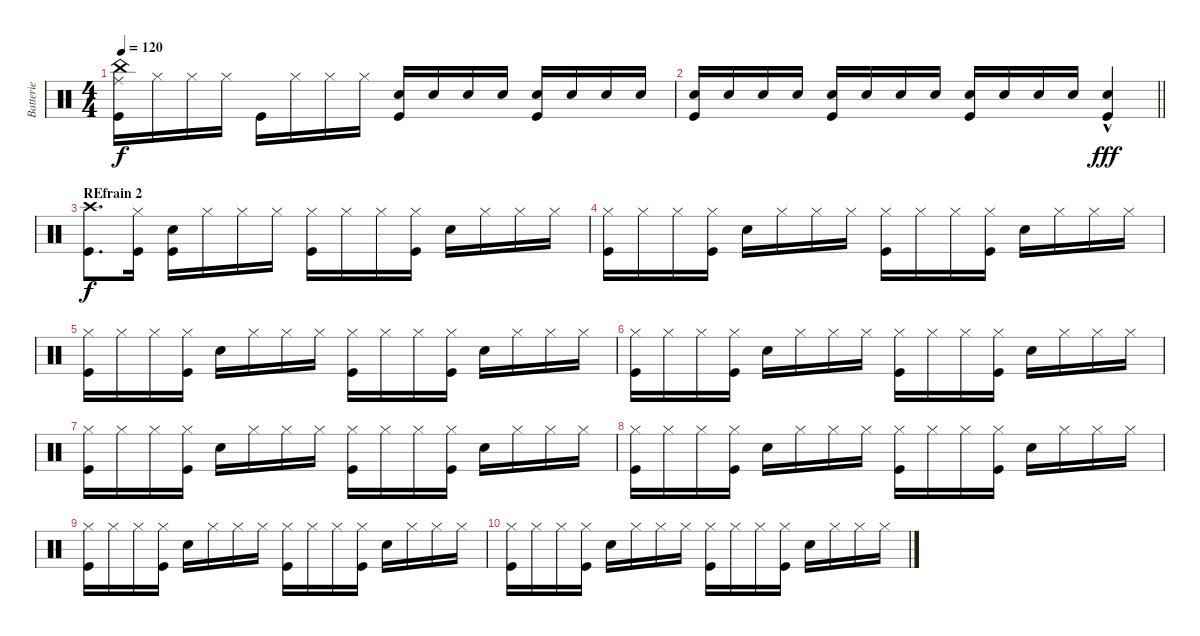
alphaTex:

\track ("Batterie" "Batterie") {instrument percussion}
\staff {score}
\articulation defaults
\ts (4 4)
\tempo 120
\clef neutral
\ks c
("Kick (hit)" "Ride (middle)" "China (hit)").16{dy f} "Hi-Hat (closed)".16 "Hi-Hat (closed)".16 "Hi-Hat (closed)".16 "Kick (hit)".16 "Hi-Hat (closed)".16 "Hi-Hat (closed)".16 "Hi-Hat (closed)".16{volume 3} ("Kick (hit)" "Snare (hit) 2").16{volume 16} "Snare (hit) 2".16 "Snare (hit) 2".16 "Snare (hit) 2".16 ("Kick (hit)" "Snare (hit) 2").16 "Snare (hit) 2".16 "Snare (hit) 2".16 "Snare (hit) 2".16 |
\barLineRight lightlight
("Kick (hit)" "Snare (hit) 2").16 "Snare (hit) 2".16 "Snare (hit) 2".16 "Snare (hit) 2".16 ("Snare (hit) 2" "Kick (hit)").16 "Snare (hit) 2".16 "Snare (hit) 2".16 "Snare (hit) 2".16 ("Snare (hit) 2" "Kick (hit)").16 "Snare (hit) 2".16 "Snare (hit) 2".16 "Snare (hit) 2".16 ("Snare (hit) 2"{hac} "Kick (hit)").4{dy fff} |
\section ("" "REfrain 2")
("Crash high (hit)" "Kick (hit)").8{d dy f volume 13} ("Kick (hit)" "Hi-Hat (closed)").16 ("Snare (hit) 2" "Kick (hit)").16 "Hi-Hat (closed)".16 "Hi-Hat (closed)".16 "Hi-Hat (closed)".16 ("Hi-Hat (closed)" "Kick (hit)").16 "Hi-Hat (closed)".16 "Hi-Hat (closed)".16 ("Hi-Hat (closed)" "Kick (hit)").16 "Snare (hit) 2".16 "Hi-Hat (closed)".16 "Hi-Hat (closed)".16 "Hi-Hat (closed)".16 |
("Hi-Hat (closed)" "Kick (hit)").16 "Hi-Hat (closed)".16 "Hi-Hat (closed)".16 ("Hi-Hat (closed)" "Kick (hit)").16 "Snare (hit) 2".16 "Hi-Hat (closed)".16 "Hi-Hat (closed)".16 "Hi-Hat (closed)".16 ("Hi-Hat (closed)" "Kick (hit)").16 "Hi-Hat (closed)".16 "Hi-Hat (closed)".16 ("Hi-Hat (closed)" "Kick (hit)").16 "Snare (hit) 2".16 "Hi-Hat (closed)".16 "Hi-Hat (closed)".16 "Hi-Hat (closed)".16 |
("Hi-Hat (closed)" "Kick (hit)").16 "Hi-Hat (closed)".16 "Hi-Hat (closed)".16 ("Hi-Hat (closed)" "Kick (hit)").16 "Snare (hit) 2".16 "Hi-Hat (closed)".16 "Hi-Hat (closed)".16 "Hi-Hat (closed)".16 ("Hi-Hat (closed)" "Kick (hit)").16 "Hi-Hat (closed)".16 "Hi-Hat (closed)".16 ("Hi-Hat (closed)" "Kick (hit)").16 "Snare (hit) 2".16 "Hi-Hat (closed)".16 "Hi-Hat (closed)".16 "Hi-Hat (closed)".16 |
("Hi-Hat (closed)" "Kick (hit)").16 "Hi-Hat (closed)".16 "Hi-Hat (closed)".16 ("Hi-Hat (closed)" "Kick (hit)").16 "Snare (hit) 2".16 "Hi-Hat (closed)".16 "Hi-Hat (closed)".16 "Hi-Hat (closed)".16 ("Hi-Hat (closed)" "Kick (hit)").16 "Hi-Hat (closed)".16 "Hi-Hat (closed)".16 ("Hi-Hat (closed)" "Kick (hit)").16 "Snare (hit) 2".16 "Hi-Hat (closed)".16 "Hi-Hat (closed)".16 "Hi-Hat (closed)".16 |
("Hi-Hat (closed)" "Kick (hit)").16 "Hi-Hat (closed)".16 "Hi-Hat (closed)".16 ("Hi-Hat (closed)" "Kick (hit)").16 "Snare (hit) 2".16 "Hi-Hat (closed)".16 "Hi-Hat (closed)".16 "Hi-Hat (closed)".16 ("Hi-Hat (closed)" "Kick (hit)").16 "Hi-Hat (closed)".16 "Hi-Hat (closed)".16 ("Hi-Hat (closed)" "Kick (hit)").16 "Snare (hit) 2".16 "Hi-Hat (closed)".16 "Hi-Hat (closed)".16 "Hi-Hat (closed)".16 |
("Hi-Hat (closed)" "Kick (hit)").16 "Hi-Hat (closed)".16 "Hi-Hat (closed)".16 ("Hi-Hat (closed)" "Kick (hit)").16 "Snare (hit) 2".16 "Hi-Hat (closed)".16 "Hi-Hat (closed)".16 "Hi-Hat (closed)".16 ("Hi-Hat (closed)" "Kick (hit)").16 "Hi-Hat (closed)".16 "Hi-Hat (closed)".16 ("Hi-Hat (closed)" "Kick (hit)").16 "Snare (hit) 2".16 "Hi-Hat (closed)".16 "Hi-Hat (closed)".16 "Hi-Hat (closed)".16 |
("Hi-Hat (closed)" "Kick (hit)").16 "Hi-Hat (closed)".16 "Hi-Hat (closed)".16 ("Hi-Hat (closed)" "Kick (hit)").16 "Snare (hit) 2".16 "Hi-Hat (closed)".16 "Hi-Hat (closed)".16 "Hi-Hat (closed)".16 ("Hi-Hat (closed)" "Kick (hit)").16 "Hi-Hat (closed)".16 "Hi-Hat (closed)".16 ("Hi-Hat (closed)" "Kick (hit)").16 "Snare (hit) 2".16 "Hi-Hat (closed)".16 "Hi-Hat (closed)".16 "Hi-Hat (closed)".16 |
("Hi-Hat (closed)" "Kick (hit)").16 "Hi-Hat (closed)".16 "Hi-Hat (closed)".16 ("Hi-Hat (closed)" "Kick (hit)").16 "Snare (hit) 2".16 "Hi-Hat (closed)".16 "Hi-Hat (closed)".16 "Hi-Hat (closed)".16 ("Hi-Hat (closed)" "Kick (hit)").16 "Hi-Hat (closed)".16 "Hi-Hat (closed)".16 ("Hi-Hat (closed)" "Kick (hit)").16 "Snare (hit) 2".16 "Hi-Hat (closed)".16 "Hi-Hat (closed)".16 "Hi-Hat (closed)".16
